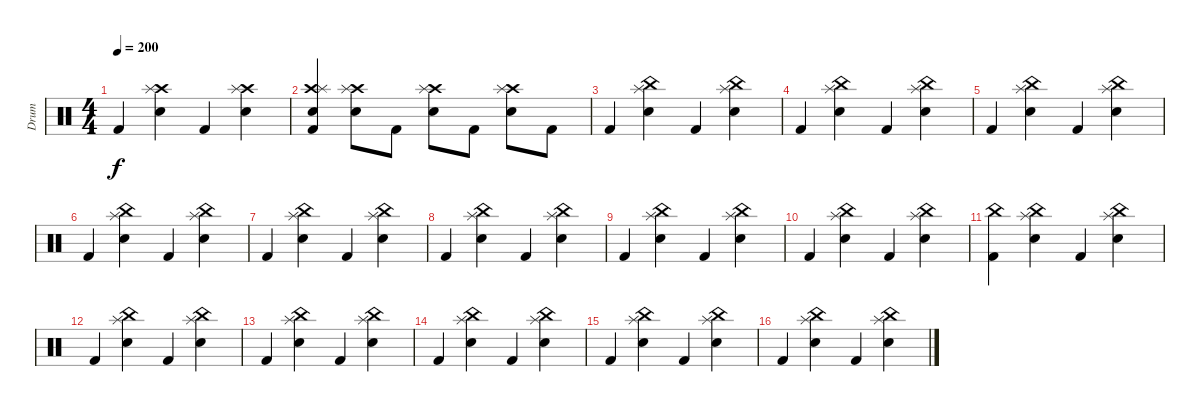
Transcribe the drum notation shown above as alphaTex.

\track ("Drum" "Drum") {instrument percussion}
\staff {score}
\articulation defaults
\ts (4 4)
\tempo 200
\clef neutral
\ks c "Kick (hit) 2".4{dy f}
("Crash high (hit)" "Splash (hit)" "Electric Snare (hit)").4 "Kick (hit) 2".4 ("Crash high (hit)" "Splash (hit)" "Electric Snare (hit)").4 |
("Crash high (hit)" "Splash (hit)" "Electric Snare (hit)" "Kick (hit) 2").4 ("Crash high (hit)" "Splash (hit)" "Electric Snare (hit)").8 "Kick (hit) 2".8 ("Crash high (hit)" "Splash (hit)" "Electric Snare (hit)").8 "Kick (hit) 2".8 ("Crash high (hit)" "Splash (hit)" "Electric Snare (hit)").8 "Kick (hit) 2".8 |
"Kick (hit) 2".4 ("China (hit)" "Splash (hit)" "Electric Snare (hit)").4 "Kick (hit) 2".4 ("China (hit)" "Splash (hit)" "Electric Snare (hit)").4 |
"Kick (hit) 2".4 ("China (hit)" "Splash (hit)" "Electric Snare (hit)").4 "Kick (hit) 2".4 ("China (hit)" "Splash (hit)" "Electric Snare (hit)").4 |
"Kick (hit) 2".4 ("China (hit)" "Splash (hit)" "Electric Snare (hit)").4 "Kick (hit) 2".4 ("China (hit)" "Splash (hit)" "Electric Snare (hit)").4 |
"Kick (hit) 2".4 ("China (hit)" "Splash (hit)" "Electric Snare (hit)").4 "Kick (hit) 2".4 ("China (hit)" "Splash (hit)" "Electric Snare (hit)").4 |
"Kick (hit) 2".4 ("China (hit)" "Splash (hit)" "Electric Snare (hit)").4 "Kick (hit) 2".4 ("China (hit)" "Splash (hit)" "Electric Snare (hit)").4 |
"Kick (hit) 2".4 ("China (hit)" "Splash (hit)" "Electric Snare (hit)").4 "Kick (hit) 2".4 ("China (hit)" "Splash (hit)" "Electric Snare (hit)").4 |
"Kick (hit) 2".4 ("China (hit)" "Splash (hit)" "Electric Snare (hit)").4 "Kick (hit) 2".4 ("China (hit)" "Splash (hit)" "Electric Snare (hit)").4 |
"Kick (hit) 2".4 ("China (hit)" "Splash (hit)" "Electric Snare (hit)").4 "Kick (hit) 2".4 ("China (hit)" "Splash (hit)" "Electric Snare (hit)").4 |
("China (hit)" "Kick (hit) 2").4 ("China (hit)" "Splash (hit)" "Electric Snare (hit)").4 "Kick (hit) 2".4 ("China (hit)" "Splash (hit)" "Electric Snare (hit)").4 |
"Kick (hit) 2".4 ("China (hit)" "Splash (hit)" "Electric Snare (hit)").4 "Kick (hit) 2".4 ("China (hit)" "Splash (hit)" "Electric Snare (hit)").4 |
"Kick (hit) 2".4 ("China (hit)" "Splash (hit)" "Electric Snare (hit)").4 "Kick (hit) 2".4 ("China (hit)" "Splash (hit)" "Electric Snare (hit)").4 |
"Kick (hit) 2".4 ("China (hit)" "Splash (hit)" "Electric Snare (hit)").4 "Kick (hit) 2".4 ("China (hit)" "Splash (hit)" "Electric Snare (hit)").4 |
"Kick (hit) 2".4 ("China (hit)" "Splash (hit)" "Electric Snare (hit)").4 "Kick (hit) 2".4 ("China (hit)" "Splash (hit)" "Electric Snare (hit)").4 |
"Kick (hit) 2".4 ("China (hit)" "Splash (hit)" "Electric Snare (hit)").4 "Kick (hit) 2".4 ("China (hit)" "Splash (hit)" "Electric Snare (hit)").4
